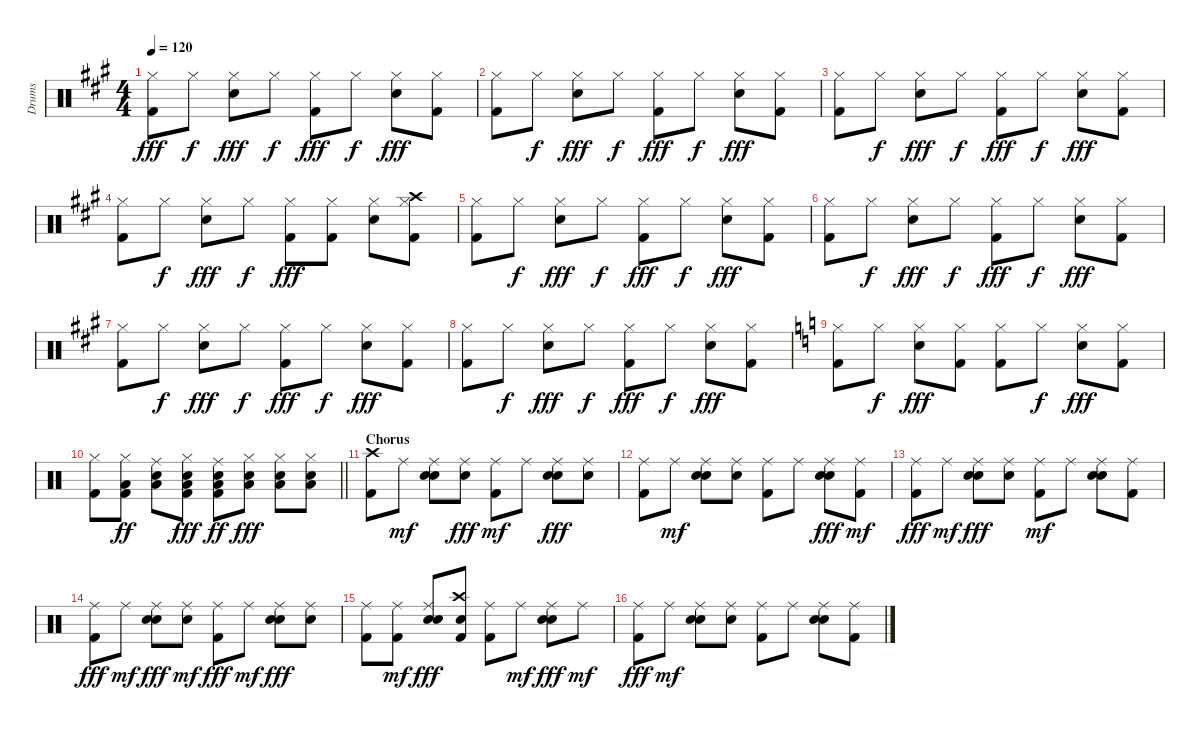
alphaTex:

\track ("Drums" "Drums") {instrument percussion}
\staff {score}
\articulation defaults
\ts (4 4)
\tempo 120
\clef neutral
\ks a
("Kick (hit) 2" "Hi-Hat (closed)").8{dy fff} "Hi-Hat (closed)".8{dy f} ("Hi-Hat (closed)" "Snare (hit) 2").8{dy fff} "Hi-Hat (closed)".8{dy f} ("Kick (hit) 2" "Hi-Hat (closed)").8{dy fff} "Hi-Hat (closed)".8{dy f} ("Hi-Hat (closed)" "Snare (hit) 2").8{dy fff} ("Kick (hit) 2" "Hi-Hat (closed)").8 |
("Hi-Hat (closed)" "Kick (hit) 2").8 "Hi-Hat (closed)".8{dy f} ("Snare (hit) 2" "Hi-Hat (closed)").8{dy fff} "Hi-Hat (closed)".8{dy f} ("Kick (hit) 2" "Hi-Hat (closed)").8{dy fff} "Hi-Hat (closed)".8{dy f} ("Snare (hit) 2" "Hi-Hat (closed)").8{dy fff} ("Hi-Hat (closed)" "Kick (hit) 2").8 |
("Hi-Hat (closed)" "Kick (hit) 2").8 "Hi-Hat (closed)".8{dy f} ("Snare (hit) 2" "Hi-Hat (closed)").8{dy fff} "Hi-Hat (closed)".8{dy f} ("Hi-Hat (closed)" "Kick (hit) 2").8{dy fff} "Hi-Hat (closed)".8{dy f} ("Snare (hit) 2" "Hi-Hat (closed)").8{dy fff} ("Hi-Hat (closed)" "Kick (hit) 2").8 |
("Kick (hit) 2" "Hi-Hat (closed)").8 "Hi-Hat (closed)".8{dy f} ("Snare (hit) 2" "Hi-Hat (closed)").8{dy fff} "Hi-Hat (closed)".8{dy f} ("Hi-Hat (closed)" "Kick (hit) 2").8{dy fff} ("Kick (hit) 2" "Hi-Hat (closed)").8 ("Hi-Hat (closed)" "Snare (hit) 2").8 ("Crash high (hit)" "Kick (hit) 2" "Hi-Hat (closed)").8 |
("Kick (hit) 2" "Hi-Hat (closed)").8 "Hi-Hat (closed)".8{dy f} ("Hi-Hat (closed)" "Snare (hit) 2").8{dy fff} "Hi-Hat (closed)".8{dy f} ("Kick (hit) 2" "Hi-Hat (closed)").8{dy fff} "Hi-Hat (closed)".8{dy f} ("Hi-Hat (closed)" "Snare (hit) 2").8{dy fff} ("Kick (hit) 2" "Hi-Hat (closed)").8 |
("Kick (hit) 2" "Hi-Hat (closed)").8 "Hi-Hat (closed)".8{dy f} ("Snare (hit) 2" "Hi-Hat (closed)").8{dy fff} "Hi-Hat (closed)".8{dy f} ("Hi-Hat (closed)" "Kick (hit) 2").8{dy fff} "Hi-Hat (closed)".8{dy f} ("Snare (hit) 2" "Hi-Hat (closed)").8{dy fff} ("Hi-Hat (closed)" "Kick (hit) 2").8 |
("Hi-Hat (closed)" "Kick (hit) 2").8 "Hi-Hat (closed)".8{dy f} ("Hi-Hat (closed)" "Snare (hit) 2").8{dy fff} "Hi-Hat (closed)".8{dy f} ("Hi-Hat (closed)" "Kick (hit) 2").8{dy fff} "Hi-Hat (closed)".8{dy f} ("Hi-Hat (closed)" "Snare (hit) 2").8{dy fff} ("Kick (hit) 2" "Hi-Hat (closed)").8 |
("Hi-Hat (closed)" "Kick (hit) 2").8 "Hi-Hat (closed)".8{dy f} ("Snare (hit) 2" "Hi-Hat (closed)").8{dy fff} "Hi-Hat (closed)".8{dy f} ("Kick (hit) 2" "Hi-Hat (closed)").8{dy fff} "Hi-Hat (closed)".8{dy f} ("Hi-Hat (closed)" "Snare (hit) 2").8{dy fff} ("Hi-Hat (closed)" "Kick (hit) 2").8 |
\ks c
("Hi-Hat (closed)" "Kick (hit) 2").8 "Hi-Hat (closed)".8{dy f} ("Hi-Hat (closed)" "Snare (hit) 2").8{dy fff} ("Hi-Hat (closed)" "Kick (hit) 2").8 ("Hi-Hat (closed)" "Kick (hit) 2").8 "Hi-Hat (closed)".8{dy f} ("Snare (hit) 2" "Hi-Hat (closed)").8{dy fff} ("Hi-Hat (closed)" "Kick (hit) 2").8 |
\barLineRight lightlight
("Kick (hit) 2" "Hi-Hat (closed)").8 ("Kick (hit) 2" "Hi-Hat (closed)" "Low Floor Tom (hit)").8{dy ff} ("Snare (hit) 2" "Ride (middle)" "Low Floor Tom (hit)").8 ("Low Floor Tom (hit)" "Hi-Hat (closed)" "Kick (hit) 2" "Snare (hit) 2").8{dy fff} ("Kick (hit) 2" "Snare (hit) 2" "Ride (middle)" "Low Floor Tom (hit)").8{dy ff} ("Hi-Hat (closed)" "Low Floor Tom (hit)" "Snare (hit) 2").8{dy fff} ("Hi-Hat (closed)" "Low Floor Tom (hit)" "Snare (hit) 2").8 ("Low Floor Tom (hit)" "Hi-Hat (closed)" "Snare (hit) 2").8 |
\section ("" "Chorus")
("Crash high (hit)" "Kick (hit) 2").8 "Ride (middle)".8{dy mf} ("Hand Clap (hit)" "Snare (hit) 2" "Ride (middle)").8 ("Ride (middle)" "Hand Clap (hit)").8{dy fff} ("Kick (hit) 2" "Ride (middle)").8{dy mf} "Ride (middle)".8 ("Snare (hit) 2" "Ride (middle)" "Hand Clap (hit)").8{dy fff} ("Ride (middle)" "Snare (hit) 2").8 |
("Ride (middle)" "Kick (hit) 2").8 "Ride (middle)".8{dy mf} ("Hand Clap (hit)" "Snare (hit) 2" "Ride (middle)").8 ("Hand Clap (hit)" "Ride (middle)").8 ("Kick (hit) 2" "Ride (middle)").8 "Ride (middle)".8 ("Ride (middle)" "Hand Clap (hit)" "Snare (hit) 2").8{dy fff} ("Kick (hit) 2" "Ride (middle)").8{dy mf} |
("Ride (middle)" "Kick (hit) 2").8{dy fff} "Ride (middle)".8{dy mf} ("Snare (hit) 2" "Ride (middle)" "Hand Clap (hit)").8{dy fff} ("Ride (middle)" "Hand Clap (hit)").8 ("Kick (hit) 2" "Ride (middle)").8{dy mf} "Ride (middle)".8 ("Hand Clap (hit)" "Snare (hit) 2" "Ride (middle)").8 ("Kick (hit) 2" "Ride (middle)").8 |
("Ride (middle)" "Kick (hit) 2").8{dy fff} "Ride (middle)".8{dy mf} ("Ride (middle)" "Hand Clap (hit)" "Snare (hit) 2").8{dy fff} ("Hand Clap (hit)" "Ride (middle)").8{dy mf} ("Ride (middle)" "Kick (hit) 2").8{dy fff} "Ride (middle)".8{dy mf} ("Ride (middle)" "Hand Clap (hit)" "Snare (hit) 2").8{dy fff} ("Ride (middle)" "Snare (hit) 2").8 |
("Ride (middle)" "Kick (hit) 2").8 ("Kick (hit) 2" "Ride (middle)").8{dy mf} ("Hand Clap (hit)" "Ride (middle)" "Snare (hit) 2").8{dy fff} ("Crash high (hit)" "Kick (hit) 2" "Hand Clap (hit)").8 ("Ride (middle)" "Kick (hit) 2").8 "Ride (middle)".8{dy mf} ("Ride (middle)" "Snare (hit) 2" "Hand Clap (hit)").8{dy fff} "Ride (middle)".8{dy mf} |
("Ride (middle)" "Kick (hit) 2").8{dy fff} "Ride (middle)".8{dy mf} ("Snare (hit) 2" "Hand Clap (hit)" "Ride (middle)").8 ("Hand Clap (hit)" "Ride (middle)").8 ("Kick (hit) 2" "Ride (middle)").8 "Ride (middle)".8 ("Hand Clap (hit)" "Snare (hit) 2" "Ride (middle)").8 ("Kick (hit) 2" "Ride (middle)").8
